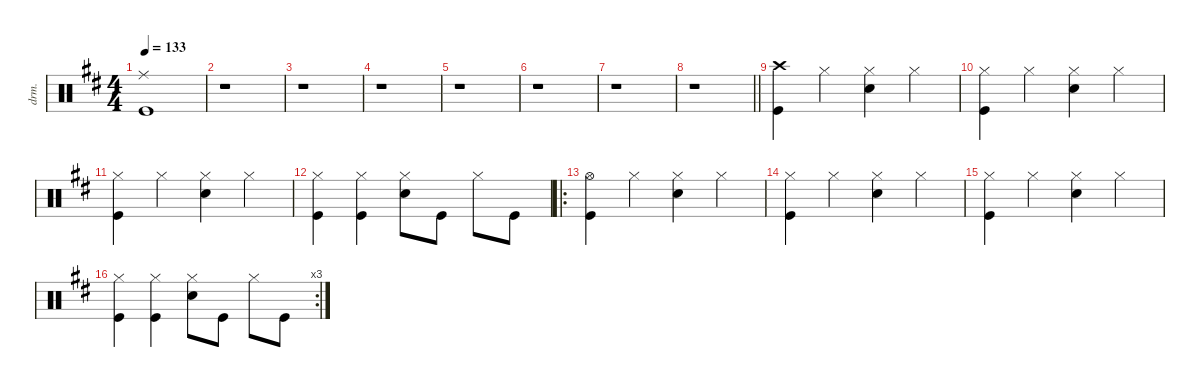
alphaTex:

\defaultSystemsLayout 4
\hideDynamics
\bracketExtendMode nobrackets
\otherSystemsTrackNameOrientation horizontal
\track ("Drums" "drm.") {defaultSystemsLayout 4 instrument percussion}
\staff {score}
\articulation defaults
\ts (4 4)
\tempo 133
\clef neutral
\ks bminor
("Ride (middle)"{acc forcenatural} "Kick (hit)"{acc forcenatural}).1{dy fff beam Down} |
r.1{beam Down} |
r.1{beam Down} |
r.1{beam Down} |
r.1{beam Down} |
r.1{beam Down} |
r.1{beam Down} |
\barLineRight lightlight
r.1{beam Down} |
("Crash high (hit)"{acc forcenatural} "Kick (hit)"{acc forcenatural}).4{dy f beam Down} "Hi-Hat (closed)"{acc forcenatural}.4{beam Down} ("Hi-Hat (closed)"{acc forcenatural} "Snare (hit) 2"{acc forcenatural}).4{beam Down} "Hi-Hat (closed)"{acc forcenatural}.4{beam Down} |
("Hi-Hat (closed)"{acc forcenatural} "Kick (hit)"{acc forcenatural}).4{beam Down} "Hi-Hat (closed)"{acc forcenatural}.4{beam Down} ("Hi-Hat (closed)"{acc forcenatural} "Snare (hit) 2"{acc forcenatural}).4{beam Down} "Hi-Hat (closed)"{acc forcenatural}.4{beam Down} |
("Hi-Hat (closed)"{acc forcenatural} "Kick (hit)"{acc forcenatural}).4{beam Down} "Hi-Hat (closed)"{acc forcenatural}.4{beam Down} ("Hi-Hat (closed)"{acc forcenatural} "Snare (hit) 2"{acc forcenatural}).4{beam Down} "Hi-Hat (closed)"{acc forcenatural}.4{beam Down} |
("Hi-Hat (closed)"{acc forcenatural} "Kick (hit)"{acc forcenatural}).4{beam Down} ("Hi-Hat (closed)"{acc forcenatural} "Kick (hit)"{acc forcenatural}).4{beam Down} ("Hi-Hat (closed)"{acc forcenatural} "Snare (hit) 2"{acc forcenatural}).8{beam Down} "Kick (hit)"{acc forcenatural}.8{beam Down} "Hi-Hat (closed)"{acc forcenatural}.8{beam Down} "Kick (hit)"{acc forcenatural}.8{beam Down} |
\ro
("Hi-Hat (open)"{acc forcenatural} "Kick (hit)"{acc forcenatural}).4{beam Down} "Hi-Hat (closed)"{acc forcenatural}.4{beam Down} ("Hi-Hat (closed)"{acc forcenatural} "Snare (hit) 2"{acc forcenatural}).4{beam Down} "Hi-Hat (closed)"{acc forcenatural}.4{beam Down} |
("Hi-Hat (closed)"{acc forcenatural} "Kick (hit)"{acc forcenatural}).4{beam Down} "Hi-Hat (closed)"{acc forcenatural}.4{beam Down} ("Hi-Hat (closed)"{acc forcenatural} "Snare (hit) 2"{acc forcenatural}).4{beam Down} "Hi-Hat (closed)"{acc forcenatural}.4{beam Down} |
("Hi-Hat (closed)"{acc forcenatural} "Kick (hit)"{acc forcenatural}).4{beam Down} "Hi-Hat (closed)"{acc forcenatural}.4{beam Down} ("Hi-Hat (closed)"{acc forcenatural} "Snare (hit) 2"{acc forcenatural}).4{beam Down} "Hi-Hat (closed)"{acc forcenatural}.4{beam Down} |
\rc 3
("Hi-Hat (closed)"{acc forcenatural} "Kick (hit)"{acc forcenatural}).4{beam Down} ("Hi-Hat (closed)"{acc forcenatural} "Kick (hit)"{acc forcenatural}).4{beam Down} ("Hi-Hat (closed)"{acc forcenatural} "Snare (hit) 2"{acc forcenatural}).8{beam Down} "Kick (hit)"{acc forcenatural}.8{beam Down} "Hi-Hat (closed)"{acc forcenatural}.8{beam Down} "Kick (hit)"{acc forcenatural}.8{beam Down}
